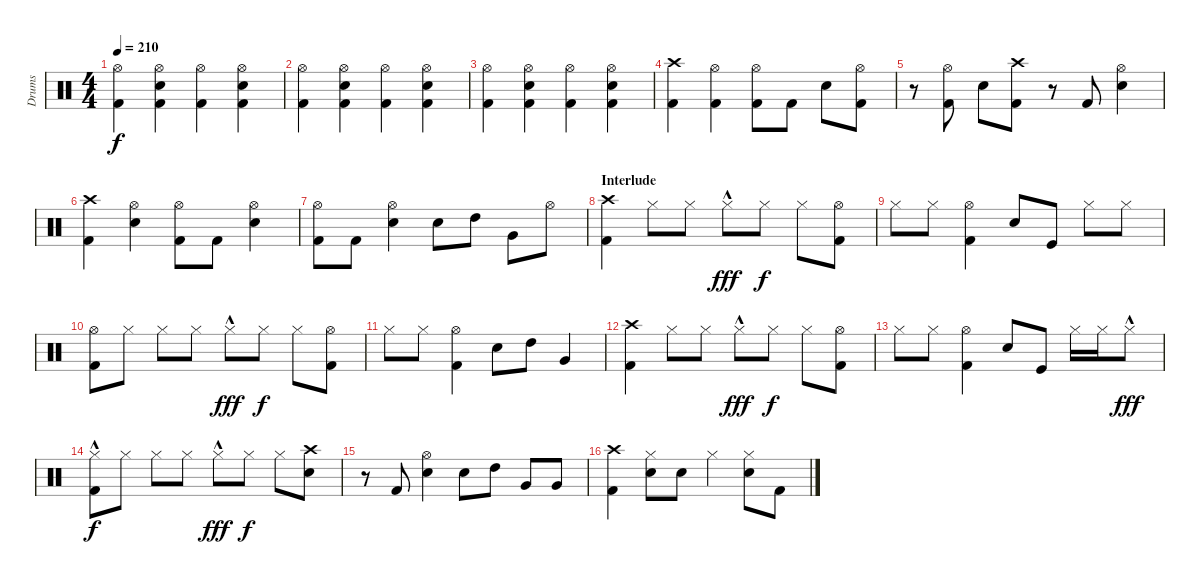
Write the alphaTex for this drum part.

\track ("Drums" "Drums") {instrument percussion}
\staff {score}
\articulation defaults
\ts (4 4)
\tempo 210
\clef neutral
\ks c
("Hi-Hat (open)" "Kick (hit) 2").4{dy f} ("Hi-Hat (open)" "Snare (hit) 2" "Kick (hit) 2").4 ("Hi-Hat (open)" "Kick (hit) 2").4 ("Hi-Hat (open)" "Snare (hit) 2" "Kick (hit) 2").4 |
("Hi-Hat (open)" "Kick (hit) 2").4 ("Hi-Hat (open)" "Snare (hit) 2" "Kick (hit) 2").4 ("Hi-Hat (open)" "Kick (hit) 2").4 ("Hi-Hat (open)" "Snare (hit) 2" "Kick (hit) 2").4 |
("Hi-Hat (open)" "Kick (hit) 2").4 ("Hi-Hat (open)" "Snare (hit) 2" "Kick (hit) 2").4 ("Hi-Hat (open)" "Kick (hit) 2").4 ("Hi-Hat (open)" "Snare (hit) 2" "Kick (hit) 2").4 |
("Crash high (hit)" "Kick (hit) 2").4 ("Hi-Hat (open)" "Kick (hit) 2").4 ("Hi-Hat (open)" "Kick (hit) 2").8 "Kick (hit) 2".8 "Snare (hit) 2".8 ("Hi-Hat (open)" "Kick (hit) 2").8 |
r.8 ("Hi-Hat (open)" "Kick (hit) 2").8 "Snare (hit) 2".8 ("Crash high (hit)" "Kick (hit) 2").8 r.8 "Kick (hit) 2".8 ("Hi-Hat (open)" "Snare (hit) 2").4 |
("Crash high (hit)" "Kick (hit) 2").4 ("Hi-Hat (open)" "Snare (hit) 2").4 ("Hi-Hat (open)" "Kick (hit) 2").8 "Kick (hit) 2".8 ("Hi-Hat (open)" "Snare (hit) 2").4 |
("Hi-Hat (open)" "Kick (hit) 2").8 "Kick (hit) 2".8 ("Hi-Hat (open)" "Snare (hit) 2").4 "Snare (hit) 2".8 "High Tom (hit)".8 "Very Low Tom (hit)".8 "Hi-Hat (open)".8 |
\section ("" "Interlude")
("Crash high (hit)" "Kick (hit) 2").4 "Hi-Hat (closed)".8 "Hi-Hat (closed)".8 "Hi-Hat (closed)"{hac}.8{dy fff} "Hi-Hat (closed)".8{dy f} "Hi-Hat (closed)".8 ("Hi-Hat (open)" "Kick (hit) 2").8 |
"Hi-Hat (closed)".8 "Hi-Hat (closed)".8 ("Hi-Hat (open)" "Kick (hit) 2").4 "Snare (hit) 2".8 "Kick (hit)".8 "Hi-Hat (closed)".8 "Hi-Hat (closed)".8 |
("Hi-Hat (open)" "Kick (hit) 2").8 "Hi-Hat (closed)".8 "Hi-Hat (closed)".8 "Hi-Hat (closed)".8 "Hi-Hat (closed)"{hac}.8{dy fff} "Hi-Hat (closed)".8{dy f} "Hi-Hat (closed)".8 ("Hi-Hat (open)" "Kick (hit) 2").8 |
"Hi-Hat (closed)".8 "Hi-Hat (closed)".8 ("Hi-Hat (open)" "Kick (hit) 2").4 "Snare (hit) 2".8 "High Tom (hit)".8 "Very Low Tom (hit)".4 |
("Crash high (hit)" "Kick (hit) 2").4 "Hi-Hat (closed)".8 "Hi-Hat (closed)".8 "Hi-Hat (closed)"{hac}.8{dy fff} "Hi-Hat (closed)".8{dy f} "Hi-Hat (closed)".8 ("Hi-Hat (open)" "Kick (hit) 2").8 |
"Hi-Hat (closed)".8 "Hi-Hat (closed)".8 ("Hi-Hat (open)" "Kick (hit) 2").4 "Snare (hit) 2".8 "Kick (hit)".8 "Hi-Hat (closed)".16 "Hi-Hat (closed)".16 "Hi-Hat (closed)"{hac}.8{dy fff} |
("Hi-Hat (closed)"{hac} "Kick (hit) 2").8{dy f} "Hi-Hat (closed)".8 "Hi-Hat (closed)".8 "Hi-Hat (closed)".8 "Hi-Hat (closed)"{hac}.8{dy fff} "Hi-Hat (closed)".8{dy f} "Hi-Hat (closed)".8 ("Crash high (hit)" "Snare (hit) 2").8 |
r.8 "Kick (hit) 2".8 ("Hi-Hat (open)" "Snare (hit) 2").4 "Snare (hit) 2".8 "High Tom (hit)".8 "Very Low Tom (hit)".8 "Very Low Tom (hit)".8 |
("Crash high (hit)" "Kick (hit) 2").4 ("Hi-Hat (closed)" "Snare (hit) 2").8 "Snare (hit) 2".8 "Hi-Hat (closed)".4 ("Hi-Hat (closed)" "Snare (hit) 2").8 "Kick (hit) 2".8
